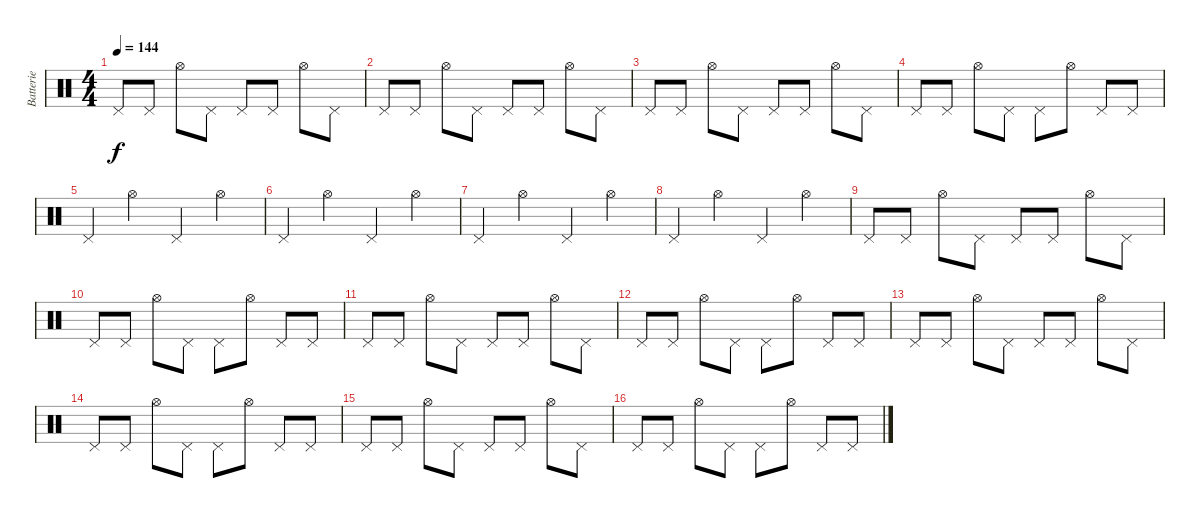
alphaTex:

\track ("Batterie" "Batterie") {instrument percussion}
\staff {score}
\articulation defaults
\ts (4 4)
\tempo 144
\clef neutral
\ks c "Pedal Hi-Hat (hit)".8{dy f} "Pedal Hi-Hat (hit)".8 "Hi-Hat (open)".8 "Pedal Hi-Hat (hit)".8 "Pedal Hi-Hat (hit)".8 "Pedal Hi-Hat (hit)".8 "Hi-Hat (open)".8 "Pedal Hi-Hat (hit)".8
|
"Pedal Hi-Hat (hit)".8 "Pedal Hi-Hat (hit)".8 "Hi-Hat (open)".8 "Pedal Hi-Hat (hit)".8 "Pedal Hi-Hat (hit)".8 "Pedal Hi-Hat (hit)".8 "Hi-Hat (open)".8 "Pedal Hi-Hat (hit)".8 |
"Pedal Hi-Hat (hit)".8 "Pedal Hi-Hat (hit)".8 "Hi-Hat (open)".8 "Pedal Hi-Hat (hit)".8 "Pedal Hi-Hat (hit)".8 "Pedal Hi-Hat (hit)".8 "Hi-Hat (open)".8 "Pedal Hi-Hat (hit)".8 |
"Pedal Hi-Hat (hit)".8 "Pedal Hi-Hat (hit)".8 "Hi-Hat (open)".8 "Pedal Hi-Hat (hit)".8 "Pedal Hi-Hat (hit)".8 "Hi-Hat (open)".8 "Pedal Hi-Hat (hit)".8 "Pedal Hi-Hat (hit)".8 |
"Pedal Hi-Hat (hit)".4 "Hi-Hat (open)".4 "Pedal Hi-Hat (hit)".4 "Hi-Hat (open)".4 |
"Pedal Hi-Hat (hit)".4 "Hi-Hat (open)".4 "Pedal Hi-Hat (hit)".4 "Hi-Hat (open)".4 |
"Pedal Hi-Hat (hit)".4 "Hi-Hat (open)".4 "Pedal Hi-Hat (hit)".4 "Hi-Hat (open)".4 |
"Pedal Hi-Hat (hit)".4 "Hi-Hat (open)".4 "Pedal Hi-Hat (hit)".4 "Hi-Hat (open)".4 |
"Pedal Hi-Hat (hit)".8 "Pedal Hi-Hat (hit)".8 "Hi-Hat (open)".8 "Pedal Hi-Hat (hit)".8 "Pedal Hi-Hat (hit)".8 "Pedal Hi-Hat (hit)".8 "Hi-Hat (open)".8 "Pedal Hi-Hat (hit)".8 |
"Pedal Hi-Hat (hit)".8 "Pedal Hi-Hat (hit)".8 "Hi-Hat (open)".8 "Pedal Hi-Hat (hit)".8 "Pedal Hi-Hat (hit)".8 "Hi-Hat (open)".8 "Pedal Hi-Hat (hit)".8 "Pedal Hi-Hat (hit)".8 |
"Pedal Hi-Hat (hit)".8 "Pedal Hi-Hat (hit)".8 "Hi-Hat (open)".8 "Pedal Hi-Hat (hit)".8 "Pedal Hi-Hat (hit)".8 "Pedal Hi-Hat (hit)".8 "Hi-Hat (open)".8 "Pedal Hi-Hat (hit)".8 |
"Pedal Hi-Hat (hit)".8 "Pedal Hi-Hat (hit)".8 "Hi-Hat (open)".8 "Pedal Hi-Hat (hit)".8 "Pedal Hi-Hat (hit)".8 "Hi-Hat (open)".8 "Pedal Hi-Hat (hit)".8 "Pedal Hi-Hat (hit)".8 |
"Pedal Hi-Hat (hit)".8 "Pedal Hi-Hat (hit)".8 "Hi-Hat (open)".8 "Pedal Hi-Hat (hit)".8 "Pedal Hi-Hat (hit)".8 "Pedal Hi-Hat (hit)".8 "Hi-Hat (open)".8 "Pedal Hi-Hat (hit)".8 |
"Pedal Hi-Hat (hit)".8 "Pedal Hi-Hat (hit)".8 "Hi-Hat (open)".8 "Pedal Hi-Hat (hit)".8 "Pedal Hi-Hat (hit)".8 "Hi-Hat (open)".8 "Pedal Hi-Hat (hit)".8 "Pedal Hi-Hat (hit)".8 |
"Pedal Hi-Hat (hit)".8 "Pedal Hi-Hat (hit)".8 "Hi-Hat (open)".8 "Pedal Hi-Hat (hit)".8 "Pedal Hi-Hat (hit)".8 "Pedal Hi-Hat (hit)".8 "Hi-Hat (open)".8 "Pedal Hi-Hat (hit)".8 |
"Pedal Hi-Hat (hit)".8 "Pedal Hi-Hat (hit)".8 "Hi-Hat (open)".8 "Pedal Hi-Hat (hit)".8 "Pedal Hi-Hat (hit)".8 "Hi-Hat (open)".8 "Pedal Hi-Hat (hit)".8 "Pedal Hi-Hat (hit)".8
